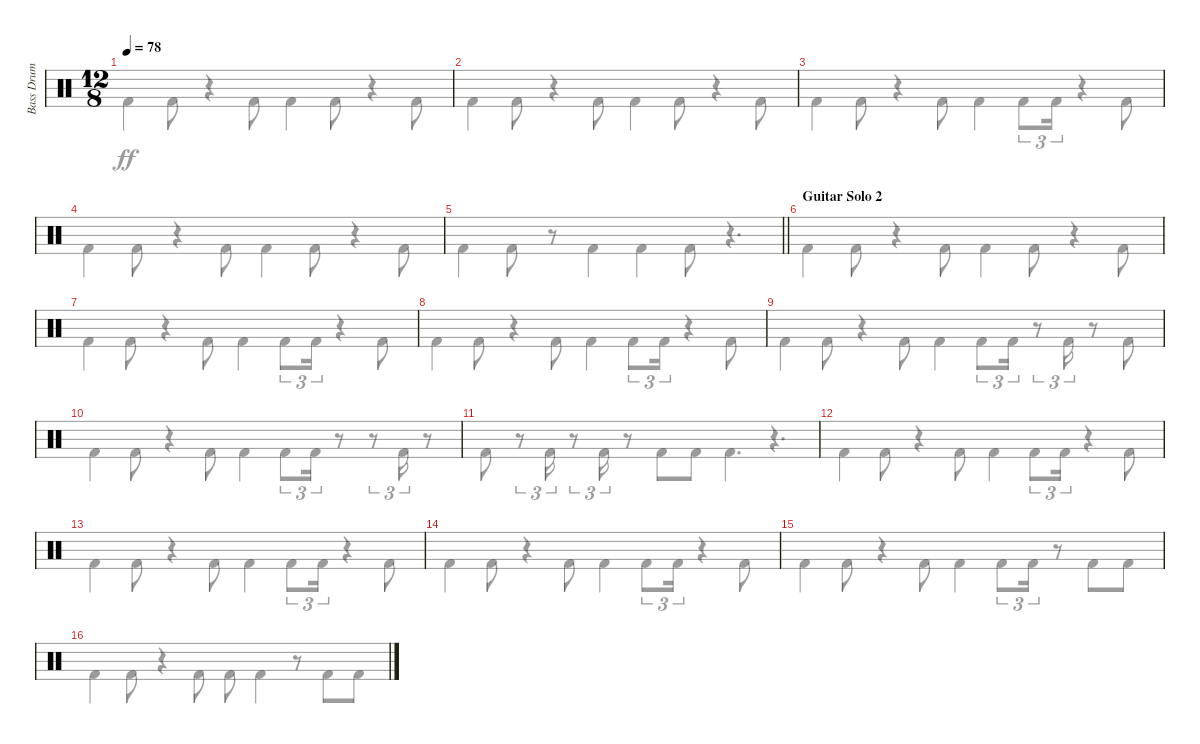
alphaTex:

\track ("Bass Drum" "Bass Drum") {instrument percussion}
\staff {score}
\articulation defaults
\voice
\ts (12 8)
\tempo 78
\clef neutral
\ks c
|
|
|
|
\barLineRight lightlight
|
\section ("" "Guitar Solo 2")
|
|
|
|
|
|
|
|
|
|
\voice
\clef neutral
\ks c "Kick (hit) 2".4{dy ff} "Kick (hit) 2".8
r.4 "Kick (hit) 2".8 "Kick (hit) 2".4 "Kick (hit) 2".8 r.4 "Kick (hit) 2".8 |
"Kick (hit) 2".4 "Kick (hit) 2".8 r.4 "Kick (hit) 2".8 "Kick (hit) 2".4 "Kick (hit) 2".8 r.4 "Kick (hit) 2".8 |
"Kick (hit) 2".4 "Kick (hit) 2".8 r.4 "Kick (hit) 2".8 "Kick (hit) 2".4 "Kick (hit) 2".8{tu (3 2)} "Kick (hit) 2".16{tu (3 2)} r.4 "Kick (hit) 2".8 |
"Kick (hit) 2".4 "Kick (hit) 2".8 r.4 "Kick (hit) 2".8 "Kick (hit) 2".4 "Kick (hit) 2".8 r.4 "Kick (hit) 2".8 |
\barLineRight lightlight "Kick (hit) 2".4 "Kick (hit) 2".8
r.8 "Kick (hit) 2".4 "Kick (hit) 2".4 "Kick (hit) 2".8 r.4{d} |
"Kick (hit) 2".4 "Kick (hit) 2".8 r.4 "Kick (hit) 2".8 "Kick (hit) 2".4 "Kick (hit) 2".8 r.4 "Kick (hit) 2".8 |
"Kick (hit) 2".4 "Kick (hit) 2".8 r.4 "Kick (hit) 2".8 "Kick (hit) 2".4 "Kick (hit) 2".8{tu (3 2)} "Kick (hit) 2".16{tu (3 2)} r.4 "Kick (hit) 2".8 |
"Kick (hit) 2".4 "Kick (hit) 2".8 r.4 "Kick (hit) 2".8 "Kick (hit) 2".4 "Kick (hit) 2".8{tu (3 2)} "Kick (hit) 2".16{tu (3 2)} r.4 "Kick (hit) 2".8 |
"Kick (hit) 2".4 "Kick (hit) 2".8 r.4 "Kick (hit) 2".8 "Kick (hit) 2".4 "Kick (hit) 2".8{tu (3 2)} "Kick (hit) 2".16{tu (3 2)} r.8{tu (3 2)} "Kick (hit) 2".16{tu (3 2)} r.8 "Kick (hit) 2".8 |
"Kick (hit) 2".4 "Kick (hit) 2".8 r.4 "Kick (hit) 2".8 "Kick (hit) 2".4 "Kick (hit) 2".8{tu (3 2)} "Kick (hit) 2".16{tu (3 2)} r.8 r.8{tu (3 2)} "Kick (hit) 2".16{tu (3 2)} r.8 |
"Kick (hit) 2".8 r.8{tu (3 2)} "Kick (hit) 2".16{tu (3 2)} r.8{tu (3 2)} "Kick (hit) 2".16{tu (3 2)} r.8 "Kick (hit) 2".8 "Kick (hit) 2".8 "Kick (hit) 2".4{d} r.4{d} |
"Kick (hit) 2".4 "Kick (hit) 2".8 r.4 "Kick (hit) 2".8 "Kick (hit) 2".4 "Kick (hit) 2".8{tu (3 2)} "Kick (hit) 2".16{tu (3 2)} r.4 "Kick (hit) 2".8 |
"Kick (hit) 2".4 "Kick (hit) 2".8 r.4 "Kick (hit) 2".8 "Kick (hit) 2".4 "Kick (hit) 2".8{tu (3 2)} "Kick (hit) 2".16{tu (3 2)} r.4 "Kick (hit) 2".8 |
"Kick (hit) 2".4 "Kick (hit) 2".8 r.4 "Kick (hit) 2".8 "Kick (hit) 2".4 "Kick (hit) 2".8{tu (3 2)} "Kick (hit) 2".16{tu (3 2)} r.4 "Kick (hit) 2".8 |
"Kick (hit) 2".4 "Kick (hit) 2".8 r.4 "Kick (hit) 2".8 "Kick (hit) 2".4 "Kick (hit) 2".8{tu (3 2)} "Kick (hit) 2".16{tu (3 2)} r.8 "Kick (hit) 2".8 "Kick (hit) 2".8 |
"Kick (hit) 2".4 "Kick (hit) 2".8 r.4 "Kick (hit) 2".8 "Kick (hit) 2".8 "Kick (hit) 2".4 r.8 "Kick (hit) 2".8 "Kick (hit) 2".8
